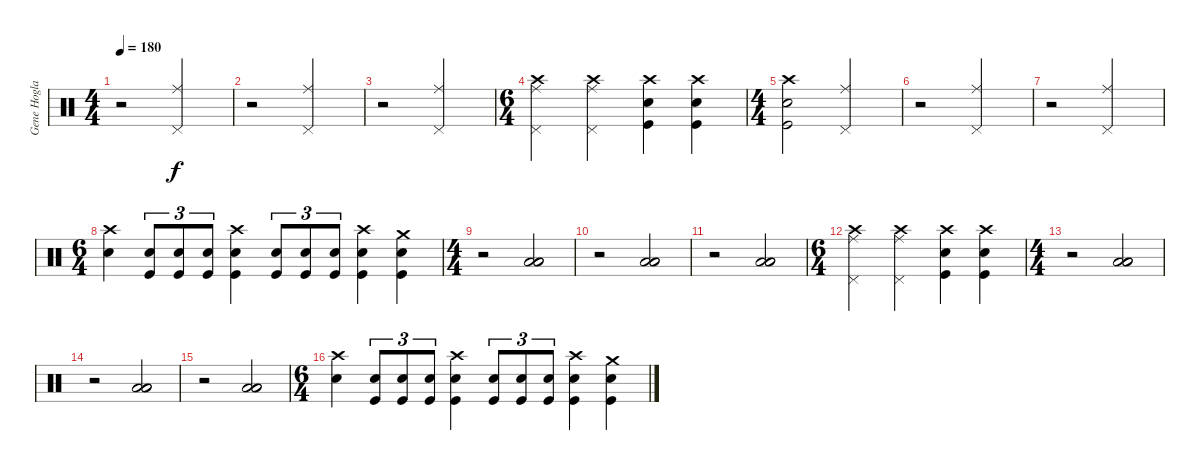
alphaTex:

\track ("Gene Hoglan" "Gene Hogla") {instrument percussion}
\staff {score}
\articulation defaults
\ts (4 4)
\tempo 180
\clef neutral
\ks c
r.2{dy f} ("Pedal Hi-Hat (hit)" "Ride (middle)").2 |
r.2 ("Pedal Hi-Hat (hit)" "Ride (middle)").2 |
r.2 ("Pedal Hi-Hat (hit)" "Ride (middle)").2 |
\ts (6 4)
("Crash high (hit)" "Pedal Hi-Hat (hit)" "Ride (middle)").2 ("Crash high (hit)" "Pedal Hi-Hat (hit)" "Ride (middle)").2 ("Crash high (hit)" "Snare (hit) 2" "Kick (hit)").4 ("Crash high (hit)" "Snare (hit) 2" "Kick (hit)").4 |
\ts (4 4)
("Crash high (hit)" "Snare (hit) 2" "Kick (hit)").2 ("Pedal Hi-Hat (hit)" "Ride (middle)").2 |
r.2 ("Pedal Hi-Hat (hit)" "Ride (middle)").2 |
r.2 ("Pedal Hi-Hat (hit)" "Ride (middle)").2 |
\ts (6 4)
("Crash high (hit)" "Snare (hit) 2").4 ("Snare (hit) 2" "Kick (hit)").8{tu (3 2)} ("Snare (hit) 2" "Kick (hit)").8{tu (3 2)} ("Snare (hit) 2" "Kick (hit)").8{tu (3 2)} ("Crash high (hit)" "Snare (hit) 2" "Kick (hit)").4 ("Snare (hit) 2" "Kick (hit)").8{tu (3 2)} ("Snare (hit) 2" "Kick (hit)").8{tu (3 2)} ("Snare (hit) 2" "Kick (hit)").8{tu (3 2)} ("Crash high (hit)" "Snare (hit) 2" "Kick (hit)").4 ("Crash medium (hit)" "Snare (hit) 2" "Kick (hit)").4 |
\ts (4 4)
r.2 ("Low Tom (hit)" "Low Tom (hit)" "Low Tom (hit)").2 |
r.2 ("Low Tom (hit)" "Low Tom (hit)" "Low Tom (hit)").2 |
r.2 ("Low Tom (hit)" "Low Tom (hit)" "Low Tom (hit)").2 |
\ts (6 4)
("Crash high (hit)" "Pedal Hi-Hat (hit)" "Ride (middle)").2 ("Crash high (hit)" "Pedal Hi-Hat (hit)" "Ride (middle)").2 ("Crash high (hit)" "Snare (hit) 2" "Kick (hit)").4 ("Crash high (hit)" "Snare (hit) 2" "Kick (hit)").4 |
\ts (4 4)
r.2 ("Low Tom (hit)" "Low Tom (hit)" "Low Tom (hit)").2 |
r.2 ("Low Tom (hit)" "Low Tom (hit)" "Low Tom (hit)").2 |
r.2 ("Low Tom (hit)" "Low Tom (hit)" "Low Tom (hit)").2 |
\ts (6 4)
("Crash high (hit)" "Snare (hit) 2").4 ("Snare (hit) 2" "Kick (hit)").8{tu (3 2)} ("Snare (hit) 2" "Kick (hit)").8{tu (3 2)} ("Snare (hit) 2" "Kick (hit)").8{tu (3 2)} ("Crash high (hit)" "Snare (hit) 2" "Kick (hit)").4 ("Snare (hit) 2" "Kick (hit)").8{tu (3 2)} ("Snare (hit) 2" "Kick (hit)").8{tu (3 2)} ("Snare (hit) 2" "Kick (hit)").8{tu (3 2)} ("Crash high (hit)" "Snare (hit) 2" "Kick (hit)").4 ("Crash medium (hit)" "Snare (hit) 2" "Kick (hit)").4
